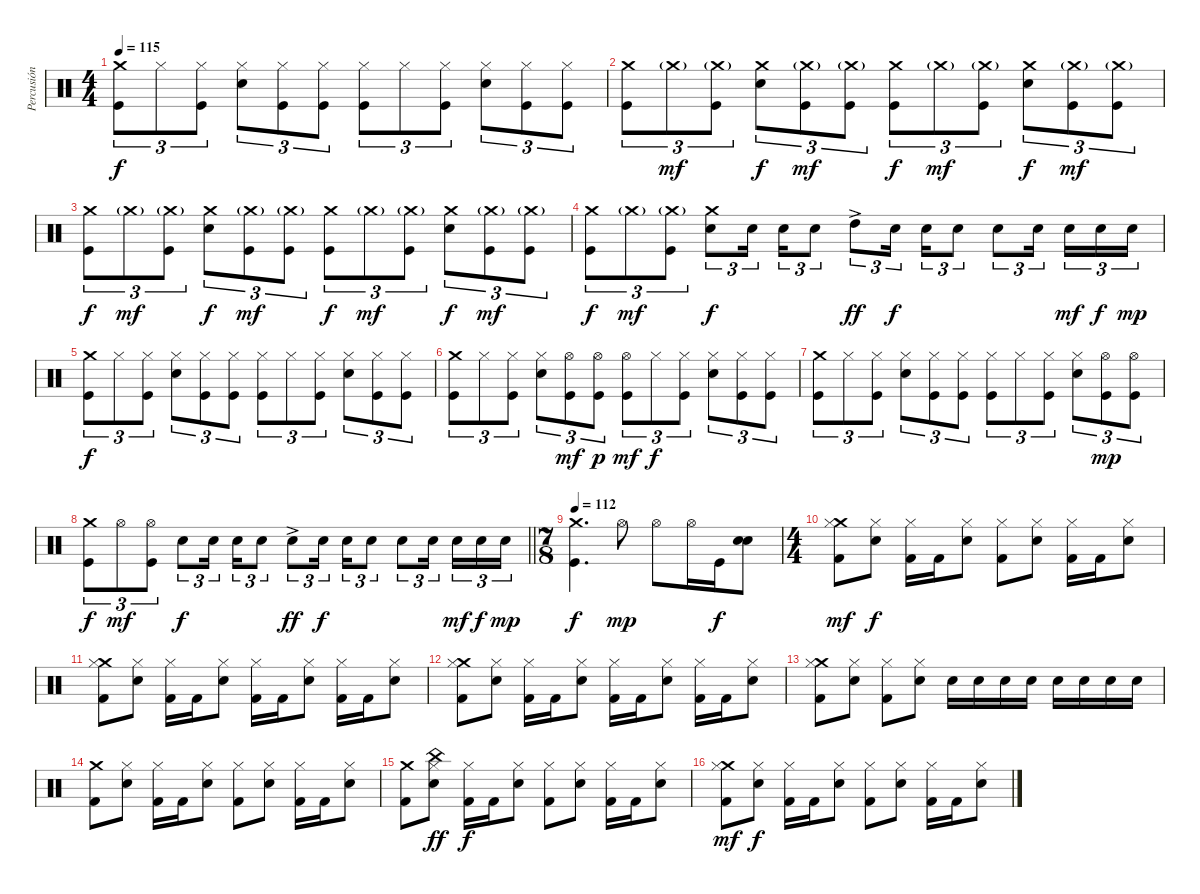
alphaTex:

\track ("Percusión" "Percusión") {instrument percussion}
\staff {score}
\articulation defaults
\ts (4 4)
\tempo 115
\clef neutral
\ks c
("Crash medium (hit)" "Kick (hit)").8{tu (3 2) dy f} "Hi-Hat (closed)".8{tu (3 2)} ("Hi-Hat (closed)" "Kick (hit)").8{tu (3 2)} ("Electric Snare (hit)" "Hi-Hat (closed)").8{tu (3 2)} ("Hi-Hat (closed)" "Kick (hit)").8{tu (3 2)} ("Hi-Hat (closed)" "Kick (hit)").8{tu (3 2)} ("Hi-Hat (closed)" "Kick (hit)").8{tu (3 2)} "Hi-Hat (closed)".8{tu (3 2)} ("Hi-Hat (closed)" "Kick (hit)").8{tu (3 2)} ("Electric Snare (hit)" "Hi-Hat (closed)").8{tu (3 2)} ("Hi-Hat (closed)" "Kick (hit)").8{tu (3 2)} ("Hi-Hat (closed)" "Kick (hit)").8{tu (3 2)} |
("Crash medium (hit)" "Kick (hit)").8{tu (3 2)} "Crash medium (hit)"{g}.8{tu (3 2) dy mf} ("Crash medium (hit)"{g} "Kick (hit)").8{tu (3 2)} ("Crash medium (hit)" "Electric Snare (hit)").8{tu (3 2) dy f} ("Crash medium (hit)"{g} "Kick (hit)").8{tu (3 2) dy mf} ("Crash medium (hit)"{g} "Kick (hit)").8{tu (3 2)} ("Crash medium (hit)" "Kick (hit)").8{tu (3 2) dy f} "Crash medium (hit)"{g}.8{tu (3 2) dy mf} ("Crash medium (hit)"{g} "Kick (hit)").8{tu (3 2)} ("Crash medium (hit)" "Electric Snare (hit)").8{tu (3 2) dy f} ("Crash medium (hit)"{g} "Kick (hit)").8{tu (3 2) dy mf} ("Crash medium (hit)"{g} "Kick (hit)").8{tu (3 2)} |
("Crash medium (hit)" "Kick (hit)").8{tu (3 2) dy f} "Crash medium (hit)"{g}.8{tu (3 2) dy mf} ("Crash medium (hit)"{g} "Kick (hit)").8{tu (3 2)} ("Crash medium (hit)" "Electric Snare (hit)").8{tu (3 2) dy f} ("Crash medium (hit)"{g} "Kick (hit)").8{tu (3 2) dy mf} ("Crash medium (hit)"{g} "Kick (hit)").8{tu (3 2)} ("Crash medium (hit)" "Kick (hit)").8{tu (3 2) dy f} "Crash medium (hit)"{g}.8{tu (3 2) dy mf} ("Crash medium (hit)"{g} "Kick (hit)").8{tu (3 2)} ("Crash medium (hit)" "Electric Snare (hit)").8{tu (3 2) dy f} ("Crash medium (hit)"{g} "Kick (hit)").8{tu (3 2) dy mf} ("Crash medium (hit)"{g} "Kick (hit)").8{tu (3 2)} |
("Crash medium (hit)" "Kick (hit)").8{tu (3 2) dy f} "Crash medium (hit)"{g}.8{tu (3 2) dy mf} ("Crash medium (hit)"{g} "Kick (hit)").8{tu (3 2)} ("Crash medium (hit)" "Electric Snare (hit)").8{tu (3 2) dy f} "Electric Snare (hit)".16{tu (3 2) beam splitsecondary} "Electric Snare (hit)".16{tu (3 2)} "Electric Snare (hit)".8{tu (3 2)} "High Tom (hit)"{ac}.8{tu (3 2) dy ff} "Electric Snare (hit)".16{tu (3 2) dy f beam splitsecondary} "Electric Snare (hit)".16{tu (3 2)} "Electric Snare (hit)".8{tu (3 2)} "Electric Snare (hit)".8{tu (3 2)} "Electric Snare (hit)".16{tu (3 2) beam splitsecondary} "Electric Snare (hit)".16{tu (3 2) dy mf} "Electric Snare (hit)".16{tu (3 2) dy f} "Electric Snare (hit)".16{tu (3 2) dy mp} |
("Crash medium (hit)" "Kick (hit)").8{tu (3 2) dy f} "Hi-Hat (closed)".8{tu (3 2)} ("Hi-Hat (closed)" "Kick (hit)").8{tu (3 2)} ("Electric Snare (hit)" "Hi-Hat (closed)").8{tu (3 2)} ("Hi-Hat (closed)" "Kick (hit)").8{tu (3 2)} ("Hi-Hat (closed)" "Kick (hit)").8{tu (3 2)} ("Hi-Hat (closed)" "Kick (hit)").8{tu (3 2)} "Hi-Hat (closed)".8{tu (3 2)} ("Hi-Hat (closed)" "Kick (hit)").8{tu (3 2)} ("Electric Snare (hit)" "Hi-Hat (closed)").8{tu (3 2)} ("Hi-Hat (closed)" "Kick (hit)").8{tu (3 2)} ("Hi-Hat (closed)" "Kick (hit)").8{tu (3 2)} |
("Crash medium (hit)" "Kick (hit)").8{tu (3 2)} "Hi-Hat (closed)".8{tu (3 2)} ("Hi-Hat (closed)" "Kick (hit)").8{tu (3 2)} ("Electric Snare (hit)" "Hi-Hat (closed)").8{tu (3 2)} ("Hi-Hat (open)" "Kick (hit)").8{tu (3 2) dy mf} ("Hi-Hat (open)" "Kick (hit)").8{tu (3 2) dy p} ("Hi-Hat (open)" "Kick (hit)").8{tu (3 2) dy mf} "Hi-Hat (closed)".8{tu (3 2) dy f} ("Hi-Hat (closed)" "Kick (hit)").8{tu (3 2)} ("Electric Snare (hit)" "Hi-Hat (closed)").8{tu (3 2)} ("Hi-Hat (closed)" "Kick (hit)").8{tu (3 2)} ("Hi-Hat (closed)" "Kick (hit)").8{tu (3 2)} |
("Crash medium (hit)" "Kick (hit)").8{tu (3 2)} "Hi-Hat (closed)".8{tu (3 2)} ("Hi-Hat (closed)" "Kick (hit)").8{tu (3 2)} ("Electric Snare (hit)" "Hi-Hat (closed)").8{tu (3 2)} ("Hi-Hat (closed)" "Kick (hit)").8{tu (3 2)} ("Hi-Hat (closed)" "Kick (hit)").8{tu (3 2)} ("Hi-Hat (closed)" "Kick (hit)").8{tu (3 2)} "Hi-Hat (closed)".8{tu (3 2)} ("Hi-Hat (closed)" "Kick (hit)").8{tu (3 2)} ("Electric Snare (hit)" "Hi-Hat (closed)").8{tu (3 2)} ("Hi-Hat (open)" "Kick (hit)").8{tu (3 2) dy mp} ("Hi-Hat (open)" "Kick (hit)").8{tu (3 2)} |
\barLineRight lightlight
("Crash medium (hit)" "Kick (hit)").8{tu (3 2) dy f} "Hi-Hat (open)".8{tu (3 2) dy mf} ("Hi-Hat (open)" "Kick (hit)").8{tu (3 2)} "Electric Snare (hit)".8{tu (3 2) dy f} "Electric Snare (hit)".16{tu (3 2) beam splitsecondary} "Electric Snare (hit)".16{tu (3 2)} "Electric Snare (hit)".8{tu (3 2)} "Electric Snare (hit)"{ac}.8{tu (3 2) dy ff} "Electric Snare (hit)".16{tu (3 2) dy f beam splitsecondary} "Electric Snare (hit)".16{tu (3 2)} "Electric Snare (hit)".8{tu (3 2)} "Electric Snare (hit)".8{tu (3 2)} "Electric Snare (hit)".16{tu (3 2) beam splitsecondary} "Electric Snare (hit)".16{tu (3 2) dy mf} "Electric Snare (hit)".16{tu (3 2) dy f} "Electric Snare (hit)".16{tu (3 2) dy mp} |
\ts (7 8)
\tempo 112
("Kick (hit)" "Crash medium (hit)").4{d dy f} "Hi-Hat (open)".8{dy mp} "Hi-Hat (open)".8 "Hi-Hat (open)".16 "Kick (hit)".16{dy f} ("Electric Snare (hit)" "Electric Snare (hit)").8 |
\ts (4 4)
("Crash medium (hit)" "Hi-Hat (closed)" "Kick (hit) 2").8{dy mf} ("Hi-Hat (closed)" "Electric Snare (hit)").8{dy f} ("Hi-Hat (closed)" "Kick (hit) 2").16 "Kick (hit) 2".16 ("Hi-Hat (closed)" "Electric Snare (hit)").8 ("Hi-Hat (closed)" "Kick (hit) 2").8 ("Hi-Hat (closed)" "Electric Snare (hit)").8 ("Hi-Hat (closed)" "Kick (hit) 2").16 "Kick (hit) 2".16 ("Hi-Hat (closed)" "Electric Snare (hit)").8 |
("Crash medium (hit)" "Hi-Hat (closed)" "Kick (hit) 2").8 ("Hi-Hat (closed)" "Electric Snare (hit)").8 ("Hi-Hat (closed)" "Kick (hit) 2").16 "Kick (hit) 2".16 ("Hi-Hat (closed)" "Electric Snare (hit)").8 ("Hi-Hat (closed)" "Kick (hit) 2").16 "Kick (hit) 2".16 ("Hi-Hat (closed)" "Electric Snare (hit)").8 ("Hi-Hat (closed)" "Kick (hit) 2").16 "Kick (hit) 2".16 ("Hi-Hat (closed)" "Electric Snare (hit)").8 |
("Crash medium (hit)" "Hi-Hat (closed)" "Kick (hit) 2").8 ("Hi-Hat (closed)" "Electric Snare (hit)").8 ("Hi-Hat (closed)" "Kick (hit) 2").16 "Kick (hit) 2".16 ("Hi-Hat (closed)" "Electric Snare (hit)").8 ("Hi-Hat (closed)" "Kick (hit) 2").16 "Kick (hit) 2".16 ("Hi-Hat (closed)" "Electric Snare (hit)").8 ("Hi-Hat (closed)" "Kick (hit) 2").16 "Kick (hit) 2".16 ("Hi-Hat (closed)" "Electric Snare (hit)").8 |
("Crash medium (hit)" "Hi-Hat (closed)" "Kick (hit) 2").8 ("Hi-Hat (closed)" "Electric Snare (hit)").8 ("Hi-Hat (closed)" "Kick (hit) 2").8 ("Hi-Hat (closed)" "Electric Snare (hit)").8 "Electric Snare (hit)".16 "Electric Snare (hit)".16 "Electric Snare (hit)".16 "Electric Snare (hit)".16 "Electric Snare (hit)".16 "Electric Snare (hit)".16 "Electric Snare (hit)".16 "Electric Snare (hit)".16 |
("Crash medium (hit)" "Kick (hit) 2").8 ("Hi-Hat (closed)" "Electric Snare (hit)").8 ("Hi-Hat (closed)" "Kick (hit) 2").16 "Kick (hit) 2".16 ("Hi-Hat (closed)" "Electric Snare (hit)").8 ("Hi-Hat (closed)" "Kick (hit) 2").8 ("Hi-Hat (closed)" "Electric Snare (hit)").8 ("Hi-Hat (closed)" "Kick (hit) 2").16 "Kick (hit) 2".16 ("Hi-Hat (closed)" "Electric Snare (hit)").8 |
("Crash medium (hit)" "Kick (hit) 2").8 ("China (hit)" "Hi-Hat (closed)" "Electric Snare (hit)").8{dy ff} ("Hi-Hat (closed)" "Kick (hit) 2").16{dy f} "Kick (hit) 2".16 ("Hi-Hat (closed)" "Electric Snare (hit)").8 ("Hi-Hat (closed)" "Kick (hit) 2").8 ("Hi-Hat (closed)" "Electric Snare (hit)").8 ("Hi-Hat (closed)" "Kick (hit) 2").16 "Kick (hit) 2".16 ("Hi-Hat (closed)" "Electric Snare (hit)").8 |
("Crash medium (hit)" "Hi-Hat (closed)" "Kick (hit) 2").8{dy mf} ("Hi-Hat (closed)" "Electric Snare (hit)").8{dy f} ("Hi-Hat (closed)" "Kick (hit) 2").16 "Kick (hit) 2".16 ("Hi-Hat (closed)" "Electric Snare (hit)").8 ("Hi-Hat (closed)" "Kick (hit) 2").8 ("Hi-Hat (closed)" "Electric Snare (hit)").8 ("Hi-Hat (closed)" "Kick (hit) 2").16 "Kick (hit) 2".16 ("Hi-Hat (closed)" "Electric Snare (hit)").8
